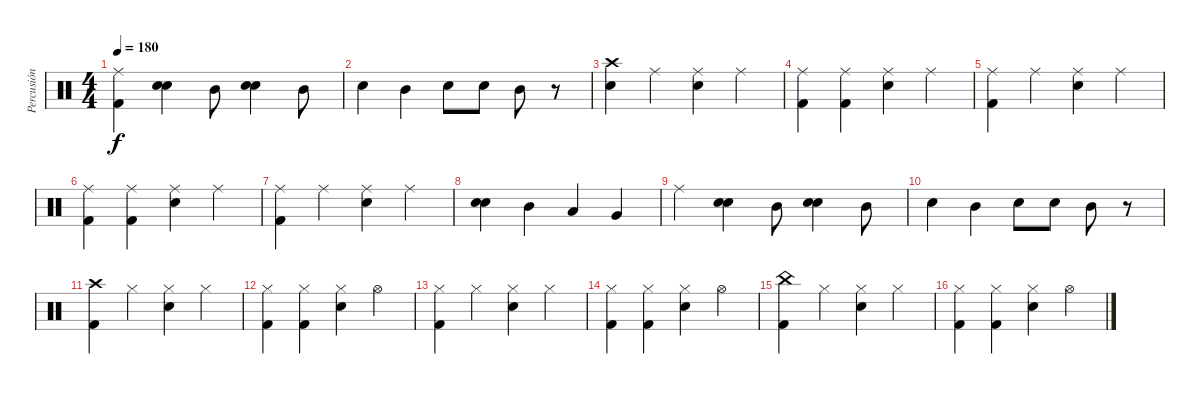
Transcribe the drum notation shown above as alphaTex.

\track ("Percusión" "Percusión") {instrument percussion}
\staff {score}
\articulation defaults
\ts (4 4)
\tempo 180
\clef neutral
\ks c
("Ride (middle)" "Kick (hit) 2").4{dy f} ("Snare (hit) 2" "Snare (hit) 2").4{bu 240} "Mid Tom (hit)".8 ("Snare (hit) 2" "Snare (hit) 2").4{bu 240} "Mid Tom (hit)".8 |
"Snare (hit) 2".4 "Mid Tom (hit)".4 "Snare (hit) 2".8 "Snare (hit) 2".8 "Mid Tom (hit)".8 r.8 |
("Crash high (hit)" "Snare (hit) 2").4 "Ride (middle)".4 ("Ride (middle)" "Snare (hit) 2").4 "Ride (middle)".4 |
("Ride (middle)" "Kick (hit) 2").4 ("Ride (middle)" "Kick (hit) 2").4 ("Ride (middle)" "Snare (hit) 2").4 "Ride (middle)".4 |
("Ride (middle)" "Kick (hit) 2").4 "Ride (middle)".4 ("Ride (middle)" "Snare (hit) 2").4 "Ride (middle)".4 |
("Ride (middle)" "Kick (hit) 2").4 ("Ride (middle)" "Kick (hit) 2").4 ("Ride (middle)" "Snare (hit) 2").4 "Ride (middle)".4 |
("Ride (middle)" "Kick (hit) 2").4 "Ride (middle)".4 ("Ride (middle)" "Snare (hit) 2").4 "Ride (middle)".4 |
("Snare (hit) 2" "Snare (hit) 2").4{bu 240} "Mid Tom (hit)".4 "Low Tom (hit)".4 "Very Low Tom (hit)".4 |
"Ride (middle)".4 ("Snare (hit) 2" "Snare (hit) 2").4{bu 240} "Mid Tom (hit)".8 ("Snare (hit) 2" "Snare (hit) 2").4{bu 240} "Mid Tom (hit)".8 |
"Snare (hit) 2".4 "Mid Tom (hit)".4 "Snare (hit) 2".8 "Snare (hit) 2".8 "Mid Tom (hit)".8 r.8 |
("Crash high (hit)" "Kick (hit) 2").4 "Hi-Hat (closed)".4 ("Hi-Hat (closed)" "Snare (hit) 2").4 "Hi-Hat (closed)".4 |
("Hi-Hat (closed)" "Kick (hit) 2").4 ("Hi-Hat (closed)" "Kick (hit) 2").4 ("Hi-Hat (closed)" "Snare (hit) 2").4 "Hi-Hat (open)".4 |
("Hi-Hat (closed)" "Kick (hit) 2").4 "Hi-Hat (closed)".4 ("Hi-Hat (closed)" "Snare (hit) 2").4 "Hi-Hat (closed)".4 |
("Hi-Hat (closed)" "Kick (hit) 2").4 ("Hi-Hat (closed)" "Kick (hit) 2").4 ("Hi-Hat (closed)" "Snare (hit) 2").4 "Hi-Hat (open)".4 |
("China (hit)" "Kick (hit) 2").4 "Hi-Hat (closed)".4 ("Hi-Hat (closed)" "Snare (hit) 2").4 "Hi-Hat (closed)".4 |
("Hi-Hat (closed)" "Kick (hit) 2").4 ("Hi-Hat (closed)" "Kick (hit) 2").4 ("Hi-Hat (closed)" "Snare (hit) 2").4 "Hi-Hat (open)".4
